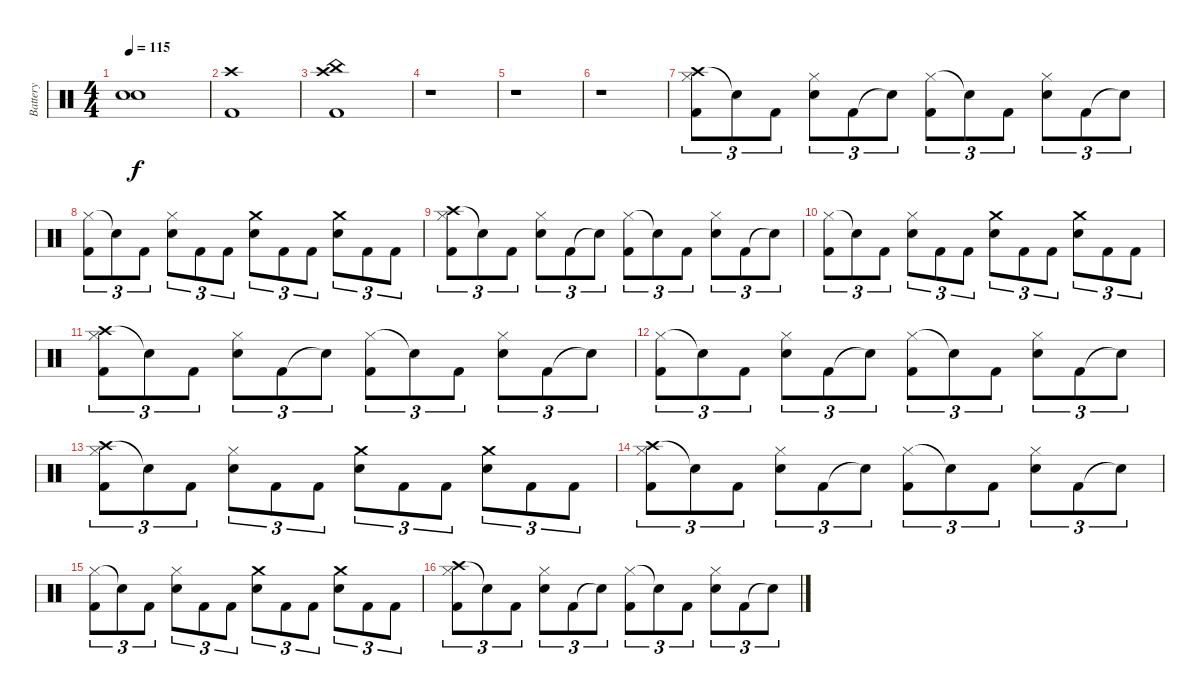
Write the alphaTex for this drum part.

\track ("Battery" "Battery") {instrument percussion}
\staff {score}
\articulation defaults
\ts (4 4)
\tempo 115
\clef neutral
\ks c
("Snare (hit)"{t} "Snare (hit)"{t}).1{dy f} |
("Crash high (hit)" "Kick (hit) 2").1 |
("Crash high (hit)" "China (hit)" "Kick (hit) 2").1 |
r.1 |
r.1 |
r.1 |
("Crash high (hit)" "Hi-Hat (closed)" "Kick (hit) 2").8{tu (3 2)} "Snare (hit)"{t}.8{tu (3 2)} "Kick (hit) 2".8{tu (3 2)} ("Hi-Hat (closed)" "Electric Snare (hit)").8{tu (3 2)} "Kick (hit) 2".8{tu (3 2)} "Snare (hit)"{t}.8{tu (3 2)} ("Hi-Hat (closed)" "Kick (hit) 2").8{tu (3 2)} "Snare (hit)"{t}.8{tu (3 2)} "Kick (hit) 2".8{tu (3 2)} ("Hi-Hat (closed)" "Electric Snare (hit)").8{tu (3 2)} "Kick (hit) 2".8{tu (3 2)} "Snare (hit)"{t}.8{tu (3 2)} |
("Hi-Hat (closed)" "Kick (hit) 2").8{tu (3 2)} "Snare (hit)"{t}.8{tu (3 2)} "Kick (hit) 2".8{tu (3 2)} ("Hi-Hat (closed)" "Electric Snare (hit)").8{tu (3 2)} "Kick (hit) 2".8{tu (3 2)} "Kick (hit) 2".8{tu (3 2)} ("Crash medium (hit)" "Electric Snare (hit)").8{tu (3 2)} "Kick (hit) 2".8{tu (3 2)} "Kick (hit) 2".8{tu (3 2)} ("Crash medium (hit)" "Electric Snare (hit)").8{tu (3 2)} "Kick (hit) 2".8{tu (3 2)} "Kick (hit) 2".8{tu (3 2)} |
("Crash high (hit)" "Hi-Hat (closed)" "Kick (hit) 2").8{tu (3 2)} "Snare (hit)"{t}.8{tu (3 2)} "Kick (hit) 2".8{tu (3 2)} ("Hi-Hat (closed)" "Electric Snare (hit)").8{tu (3 2)} "Kick (hit) 2".8{tu (3 2)} "Snare (hit)"{t}.8{tu (3 2)} ("Hi-Hat (closed)" "Kick (hit) 2").8{tu (3 2)} "Snare (hit)"{t}.8{tu (3 2)} "Kick (hit) 2".8{tu (3 2)} ("Hi-Hat (closed)" "Electric Snare (hit)").8{tu (3 2)} "Kick (hit) 2".8{tu (3 2)} "Snare (hit)"{t}.8{tu (3 2)} |
("Hi-Hat (closed)" "Kick (hit) 2").8{tu (3 2)} "Snare (hit)"{t}.8{tu (3 2)} "Kick (hit) 2".8{tu (3 2)} ("Hi-Hat (closed)" "Electric Snare (hit)").8{tu (3 2)} "Kick (hit) 2".8{tu (3 2)} "Kick (hit) 2".8{tu (3 2)} ("Crash medium (hit)" "Electric Snare (hit)").8{tu (3 2)} "Kick (hit) 2".8{tu (3 2)} "Kick (hit) 2".8{tu (3 2)} ("Crash medium (hit)" "Electric Snare (hit)").8{tu (3 2)} "Kick (hit) 2".8{tu (3 2)} "Kick (hit) 2".8{tu (3 2)} |
("Crash high (hit)" "Hi-Hat (closed)" "Kick (hit) 2").8{tu (3 2)} "Snare (hit)"{t}.8{tu (3 2)} "Kick (hit) 2".8{tu (3 2)} ("Hi-Hat (closed)" "Electric Snare (hit)").8{tu (3 2)} "Kick (hit) 2".8{tu (3 2)} "Snare (hit)"{t}.8{tu (3 2)} ("Hi-Hat (closed)" "Kick (hit) 2").8{tu (3 2)} "Snare (hit)"{t}.8{tu (3 2)} "Kick (hit) 2".8{tu (3 2)} ("Hi-Hat (closed)" "Electric Snare (hit)").8{tu (3 2)} "Kick (hit) 2".8{tu (3 2)} "Snare (hit)"{t}.8{tu (3 2)} |
("Hi-Hat (closed)" "Kick (hit) 2").8{tu (3 2)} "Snare (hit)"{t}.8{tu (3 2)} "Kick (hit) 2".8{tu (3 2)} ("Hi-Hat (closed)" "Electric Snare (hit)").8{tu (3 2)} "Kick (hit) 2".8{tu (3 2)} "Snare (hit)"{t}.8{tu (3 2)} ("Hi-Hat (closed)" "Kick (hit) 2").8{tu (3 2)} "Snare (hit)"{t}.8{tu (3 2)} "Kick (hit) 2".8{tu (3 2)} ("Hi-Hat (closed)" "Electric Snare (hit)").8{tu (3 2)} "Kick (hit) 2".8{tu (3 2)} "Snare (hit)"{t}.8{tu (3 2)} |
("Crash high (hit)" "Hi-Hat (closed)" "Kick (hit) 2").8{tu (3 2)} "Snare (hit)"{t}.8{tu (3 2)} "Kick (hit) 2".8{tu (3 2)} ("Hi-Hat (closed)" "Electric Snare (hit)").8{tu (3 2)} "Kick (hit) 2".8{tu (3 2)} "Kick (hit) 2".8{tu (3 2)} ("Crash medium (hit)" "Electric Snare (hit)").8{tu (3 2)} "Kick (hit) 2".8{tu (3 2)} "Kick (hit) 2".8{tu (3 2)} ("Crash medium (hit)" "Electric Snare (hit)").8{tu (3 2)} "Kick (hit) 2".8{tu (3 2)} "Kick (hit) 2".8{tu (3 2)} |
("Crash high (hit)" "Hi-Hat (closed)" "Kick (hit) 2").8{tu (3 2)} "Snare (hit)"{t}.8{tu (3 2)} "Kick (hit) 2".8{tu (3 2)} ("Hi-Hat (closed)" "Electric Snare (hit)").8{tu (3 2)} "Kick (hit) 2".8{tu (3 2)} "Snare (hit)"{t}.8{tu (3 2)} ("Hi-Hat (closed)" "Kick (hit) 2").8{tu (3 2)} "Snare (hit)"{t}.8{tu (3 2)} "Kick (hit) 2".8{tu (3 2)} ("Hi-Hat (closed)" "Electric Snare (hit)").8{tu (3 2)} "Kick (hit) 2".8{tu (3 2)} "Snare (hit)"{t}.8{tu (3 2)} |
("Hi-Hat (closed)" "Kick (hit) 2").8{tu (3 2)} "Snare (hit)"{t}.8{tu (3 2)} "Kick (hit) 2".8{tu (3 2)} ("Hi-Hat (closed)" "Electric Snare (hit)").8{tu (3 2)} "Kick (hit) 2".8{tu (3 2)} "Kick (hit) 2".8{tu (3 2)} ("Crash medium (hit)" "Electric Snare (hit)").8{tu (3 2)} "Kick (hit) 2".8{tu (3 2)} "Kick (hit) 2".8{tu (3 2)} ("Crash medium (hit)" "Electric Snare (hit)").8{tu (3 2)} "Kick (hit) 2".8{tu (3 2)} "Kick (hit) 2".8{tu (3 2)} |
("Crash high (hit)" "Hi-Hat (closed)" "Kick (hit) 2").8{tu (3 2)} "Snare (hit)"{t}.8{tu (3 2)} "Kick (hit) 2".8{tu (3 2)} ("Hi-Hat (closed)" "Electric Snare (hit)").8{tu (3 2)} "Kick (hit) 2".8{tu (3 2)} "Snare (hit)"{t}.8{tu (3 2)} ("Hi-Hat (closed)" "Kick (hit) 2").8{tu (3 2)} "Snare (hit)"{t}.8{tu (3 2)} "Kick (hit) 2".8{tu (3 2)} ("Hi-Hat (closed)" "Electric Snare (hit)").8{tu (3 2)} "Kick (hit) 2".8{tu (3 2)} "Snare (hit)"{t}.8{tu (3 2)}
